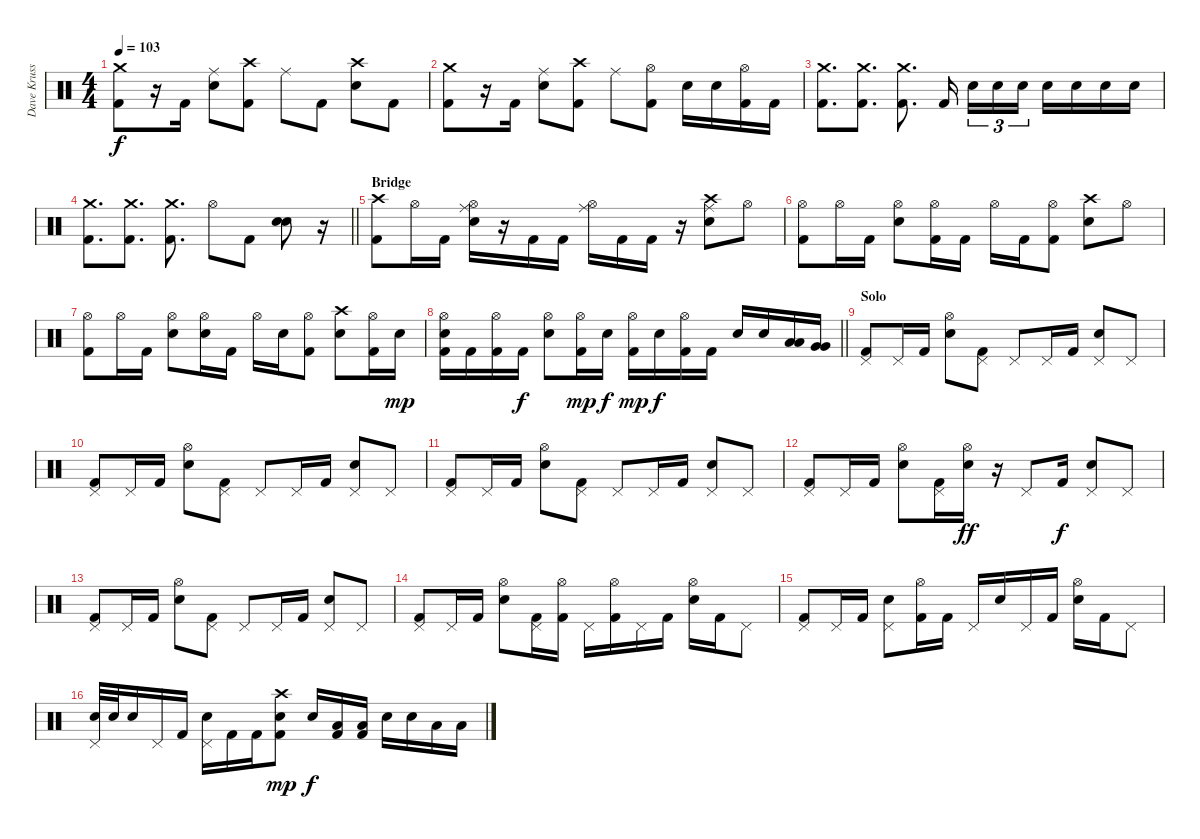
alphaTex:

\track ("Dave Krussen" "Dave Kruss") {instrument percussion}
\staff {score}
\articulation defaults
\ts (4 4)
\tempo 103
\clef neutral
\ks c
("Crash medium (hit)" "Kick (hit) 2").8{dy f} r.16 "Kick (hit) 2".16 ("Ride (middle)" "Electric Snare (hit)").8 ("Crash high (hit)" "Kick (hit) 2").8 "Ride (middle)".8 "Kick (hit) 2".8 ("Crash high (hit)" "Electric Snare (hit)").8 "Kick (hit) 2".8 |
("Crash medium (hit)" "Kick (hit) 2").8 r.16 "Kick (hit) 2".16 ("Ride (middle)" "Electric Snare (hit)").8 ("Crash high (hit)" "Kick (hit) 2").8 "Ride (middle)".8 ("Hi-Hat (open)" "Kick (hit) 2").8 "Electric Snare (hit)".16 "Electric Snare (hit)".16 ("Hi-Hat (open)" "Kick (hit) 2").16 "Kick (hit) 2".16 |
("Crash medium (hit)" "Kick (hit) 2").8{d} ("Crash medium (hit)" "Kick (hit) 2").8{d} ("Crash medium (hit)" "Kick (hit) 2").8{d} "Kick (hit) 2".16{beam splitsecondary} "Electric Snare (hit)".16{tu (3 2)} "Electric Snare (hit)".16{tu (3 2)} "Electric Snare (hit)".16{tu (3 2)} "Electric Snare (hit)".16 "Electric Snare (hit)".16 "Electric Snare (hit)".16 "Electric Snare (hit)".16 |
\barLineRight lightlight
("Crash medium (hit)" "Kick (hit) 2").8{d} ("Crash medium (hit)" "Kick (hit) 2").8{d} ("Crash medium (hit)" "Kick (hit) 2").8{d} "Hi-Hat (open)".8 "Kick (hit) 2".8 ("Electric Snare (hit)" "Snare (hit) 2").8{bd 60} r.16 |
\section ("" "Bridge")
("Crash high (hit)" "Kick (hit) 2").8 "Hi-Hat (open)".16 "Kick (hit) 2".16 ("Ride (middle)" "Hi-Hat (open)" "Electric Snare (hit)").16 r.16 "Kick (hit) 2".16 "Kick (hit) 2".16 ("Ride (middle)" "Hi-Hat (open)").16 "Kick (hit) 2".16 "Kick (hit) 2".16 r.16 ("Ride (middle)" "Crash high (hit)" "Electric Snare (hit)").8 "Hi-Hat (open)".8 |
("Hi-Hat (open)" "Kick (hit) 2").8 "Hi-Hat (open)".16 "Kick (hit) 2".16 ("Hi-Hat (open)" "Electric Snare (hit)").8 ("Hi-Hat (open)" "Kick (hit) 2").16 "Kick (hit) 2".16 "Hi-Hat (open)".16 "Kick (hit) 2".16 ("Hi-Hat (open)" "Kick (hit) 2").8 ("Crash high (hit)" "Electric Snare (hit)").8 "Hi-Hat (open)".8 |
("Hi-Hat (open)" "Kick (hit) 2").8 "Hi-Hat (open)".16 "Kick (hit) 2".16 ("Hi-Hat (open)" "Electric Snare (hit)").8 ("Hi-Hat (open)" "Electric Snare (hit)").16 "Kick (hit) 2".16 "Hi-Hat (open)".16 "Electric Snare (hit)".16 ("Hi-Hat (open)" "Kick (hit) 2").8 ("Crash high (hit)" "Electric Snare (hit)").8 ("Hi-Hat (open)" "Kick (hit) 2").16 "Electric Snare (hit)".16{dy mp} |
\barLineRight lightlight
("Hi-Hat (open)" "Electric Snare (hit)" "Kick (hit) 2").16 "Kick (hit) 2".16 ("Hi-Hat (open)" "Kick (hit) 2").16 "Kick (hit) 2".16{dy f} ("Hi-Hat (open)" "Electric Snare (hit)").8 ("Hi-Hat (open)" "Kick (hit) 2").16{dy mp} "Electric Snare (hit)".16{dy f} ("Hi-Hat (open)" "Kick (hit) 2").16{dy mp} "Electric Snare (hit)".16{dy f} ("Hi-Hat (open)" "Kick (hit) 2").16 "Kick (hit) 2".16 "Electric Snare (hit)".16 "Electric Snare (hit)".16 ("Low Tom (hit)" "Low Tom (hit)").16 ("Very Low Tom (hit)" "Very Low Tom (hit)").16 |
\section ("" "Solo")
("Pedal Hi-Hat (hit)" "Kick (hit) 2").8 "Pedal Hi-Hat (hit)".16 "Kick (hit) 2".16 ("Hi-Hat (open)" "Electric Snare (hit)").8 ("Pedal Hi-Hat (hit)" "Kick (hit) 2").8 "Pedal Hi-Hat (hit)".8 "Pedal Hi-Hat (hit)".16 "Kick (hit) 2".16 ("Pedal Hi-Hat (hit)" "Electric Snare (hit)").8 "Pedal Hi-Hat (hit)".8 |
("Pedal Hi-Hat (hit)" "Kick (hit) 2").8 "Pedal Hi-Hat (hit)".16 "Kick (hit) 2".16 ("Hi-Hat (open)" "Electric Snare (hit)").8 ("Pedal Hi-Hat (hit)" "Kick (hit) 2").8 "Pedal Hi-Hat (hit)".8 "Pedal Hi-Hat (hit)".16 "Kick (hit) 2".16 ("Pedal Hi-Hat (hit)" "Electric Snare (hit)").8 "Pedal Hi-Hat (hit)".8 |
("Pedal Hi-Hat (hit)" "Kick (hit) 2").8 "Pedal Hi-Hat (hit)".16 "Kick (hit) 2".16 ("Hi-Hat (open)" "Electric Snare (hit)").8 ("Pedal Hi-Hat (hit)" "Kick (hit) 2").8 "Pedal Hi-Hat (hit)".8 "Pedal Hi-Hat (hit)".16 "Kick (hit) 2".16 ("Pedal Hi-Hat (hit)" "Electric Snare (hit)").8 "Pedal Hi-Hat (hit)".8 |
("Pedal Hi-Hat (hit)" "Kick (hit) 2").8 "Pedal Hi-Hat (hit)".16 "Kick (hit) 2".16 ("Hi-Hat (open)" "Electric Snare (hit)").8 ("Pedal Hi-Hat (hit)" "Kick (hit) 2").16 ("Hi-Hat (open)" "Electric Snare (hit)").16{dy ff} r.16 "Pedal Hi-Hat (hit)".8 "Kick (hit) 2".16{dy f} ("Pedal Hi-Hat (hit)" "Electric Snare (hit)").8 "Pedal Hi-Hat (hit)".8 |
("Pedal Hi-Hat (hit)" "Kick (hit) 2").8 "Pedal Hi-Hat (hit)".16 "Kick (hit) 2".16 ("Hi-Hat (open)" "Electric Snare (hit)").8 ("Pedal Hi-Hat (hit)" "Kick (hit) 2").8 "Pedal Hi-Hat (hit)".8 "Pedal Hi-Hat (hit)".16 "Kick (hit) 2".16 ("Pedal Hi-Hat (hit)" "Electric Snare (hit)").8 "Pedal Hi-Hat (hit)".8 |
("Pedal Hi-Hat (hit)" "Kick (hit) 2").8 "Pedal Hi-Hat (hit)".16 "Kick (hit) 2".16 ("Hi-Hat (open)" "Electric Snare (hit)").8 ("Pedal Hi-Hat (hit)" "Kick (hit) 2").16 ("Hi-Hat (open)" "Kick (hit) 2").16 "Pedal Hi-Hat (hit)".16 ("Hi-Hat (open)" "Kick (hit) 2").16 "Pedal Hi-Hat (hit)".16 "Kick (hit) 2".16 ("Hi-Hat (open)" "Electric Snare (hit)").16 "Kick (hit) 2".16 "Pedal Hi-Hat (hit)".8 |
("Pedal Hi-Hat (hit)" "Kick (hit) 2").8 "Pedal Hi-Hat (hit)".16 "Kick (hit) 2".16 ("Pedal Hi-Hat (hit)" "Electric Snare (hit)").8 ("Hi-Hat (open)" "Kick (hit) 2").16 "Kick (hit) 2".16 "Pedal Hi-Hat (hit)".16 "Electric Snare (hit)".16 "Pedal Hi-Hat (hit)".16 "Kick (hit) 2".16 ("Hi-Hat (open)" "Electric Snare (hit)").16 "Kick (hit) 2".16 "Pedal Hi-Hat (hit)".8 |
("Pedal Hi-Hat (hit)" "Electric Snare (hit)").32 "Electric Snare (hit)".32 "Electric Snare (hit)".16 "Pedal Hi-Hat (hit)".16 "Kick (hit) 2".16 ("Pedal Hi-Hat (hit)" "Electric Snare (hit)").16 "Kick (hit) 2".16 "Kick (hit) 2".16 ("Crash high (hit)" "Electric Snare (hit)" "Kick (hit) 2").8{dy mp} "Electric Snare (hit)".16{dy f} ("Low Tom (hit)" "Kick (hit) 2").16 ("Low Tom (hit)" "Kick (hit) 2").16 "Electric Snare (hit)".16 "Electric Snare (hit)".16 "Low Tom (hit)".16 "Low Tom (hit)".16
